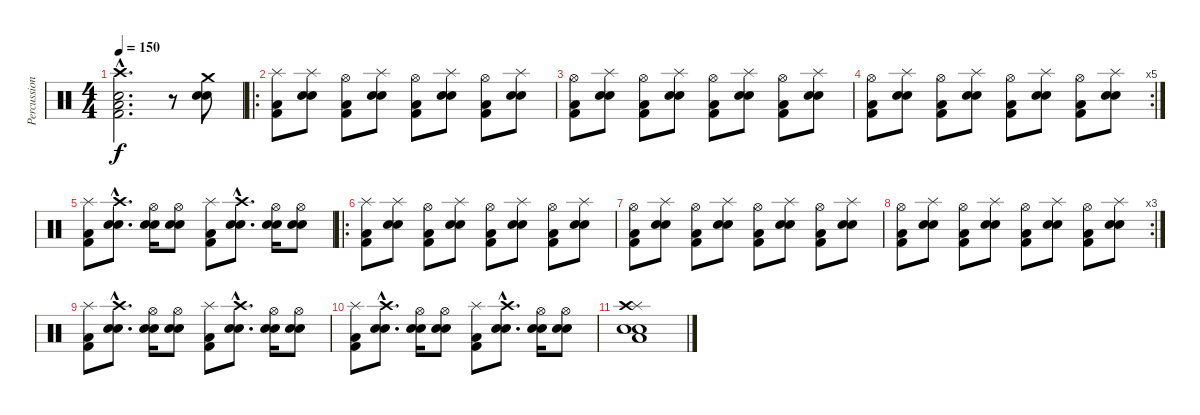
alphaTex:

\track ("Percussions" "Percussion") {instrument percussion}
\staff {score}
\articulation defaults
\ts (4 4)
\tempo 150
\clef neutral
\ks c
("Crash high (hit)"{hac} "Kick (hit) 2"{hac} "Low Floor Tom (hit)"{hac} "Snare (hit) 2"{hac}).2{d dy f} r.8 ("Crash medium (hit)" "Snare (hit) 2" "Electric Snare (hit)").8 |
\ro
("Splash (hit)" "Kick (hit) 2" "Low Floor Tom (hit)").8 ("Splash (hit)" "Snare (hit) 2" "Electric Snare (hit)").8 ("Hi-Hat (open)" "Kick (hit) 2" "Low Floor Tom (hit)").8 ("Splash (hit)" "Snare (hit) 2" "Electric Snare (hit)").8 ("Hi-Hat (open)" "Kick (hit) 2" "Low Floor Tom (hit)").8 ("Splash (hit)" "Snare (hit) 2" "Electric Snare (hit)").8 ("Hi-Hat (open)" "Kick (hit) 2" "Low Floor Tom (hit)").8 ("Splash (hit)" "Snare (hit) 2" "Electric Snare (hit)").8 |
("Hi-Hat (open)" "Kick (hit) 2" "Low Floor Tom (hit)").8 ("Splash (hit)" "Snare (hit) 2" "Electric Snare (hit)").8 ("Hi-Hat (open)" "Kick (hit) 2" "Low Floor Tom (hit)").8 ("Splash (hit)" "Snare (hit) 2" "Electric Snare (hit)").8 ("Hi-Hat (open)" "Kick (hit) 2" "Low Floor Tom (hit)").8 ("Splash (hit)" "Snare (hit) 2" "Electric Snare (hit)").8 ("Hi-Hat (open)" "Kick (hit) 2" "Low Floor Tom (hit)").8 ("Splash (hit)" "Snare (hit) 2" "Electric Snare (hit)").8 |
\rc 5
("Hi-Hat (open)" "Kick (hit) 2" "Low Floor Tom (hit)").8 ("Splash (hit)" "Snare (hit) 2" "Electric Snare (hit)").8 ("Hi-Hat (open)" "Kick (hit) 2" "Low Floor Tom (hit)").8 ("Splash (hit)" "Snare (hit) 2" "Electric Snare (hit)").8 ("Hi-Hat (open)" "Kick (hit) 2" "Low Floor Tom (hit)").8 ("Splash (hit)" "Snare (hit) 2" "Electric Snare (hit)").8 ("Hi-Hat (open)" "Kick (hit) 2" "Low Floor Tom (hit)").8 ("Splash (hit)" "Snare (hit) 2" "Electric Snare (hit)").8 |
("Splash (hit)" "Kick (hit) 2" "Low Floor Tom (hit)").8 ("Crash high (hit)"{hac} "Snare (hit) 2"{hac} "Electric Snare (hit)"{hac}).8{d} ("Hi-Hat (open)" "Snare (hit) 2" "Electric Snare (hit)").16 ("Hi-Hat (open)" "Snare (hit) 2" "Electric Snare (hit)").8 ("Splash (hit)" "Kick (hit) 2" "Low Floor Tom (hit)").8 ("Crash high (hit)"{hac} "Snare (hit) 2"{hac} "Electric Snare (hit)"{hac}).8{d} ("Hi-Hat (open)" "Snare (hit) 2" "Electric Snare (hit)").16 ("Hi-Hat (open)" "Snare (hit) 2" "Electric Snare (hit)").8 |
\ro
("Splash (hit)" "Kick (hit) 2" "Low Floor Tom (hit)").8 ("Splash (hit)" "Snare (hit) 2" "Electric Snare (hit)").8 ("Hi-Hat (open)" "Kick (hit) 2" "Low Floor Tom (hit)").8 ("Splash (hit)" "Snare (hit) 2" "Electric Snare (hit)").8 ("Hi-Hat (open)" "Kick (hit) 2" "Low Floor Tom (hit)").8 ("Splash (hit)" "Snare (hit) 2" "Electric Snare (hit)").8 ("Hi-Hat (open)" "Kick (hit) 2" "Low Floor Tom (hit)").8 ("Splash (hit)" "Snare (hit) 2" "Electric Snare (hit)").8 |
("Hi-Hat (open)" "Kick (hit) 2" "Low Floor Tom (hit)").8 ("Splash (hit)" "Snare (hit) 2" "Electric Snare (hit)").8 ("Hi-Hat (open)" "Kick (hit) 2" "Low Floor Tom (hit)").8 ("Splash (hit)" "Snare (hit) 2" "Electric Snare (hit)").8 ("Hi-Hat (open)" "Kick (hit) 2" "Low Floor Tom (hit)").8 ("Splash (hit)" "Snare (hit) 2" "Electric Snare (hit)").8 ("Hi-Hat (open)" "Kick (hit) 2" "Low Floor Tom (hit)").8 ("Splash (hit)" "Snare (hit) 2" "Electric Snare (hit)").8 |
\rc 3
("Hi-Hat (open)" "Kick (hit) 2" "Low Floor Tom (hit)").8 ("Splash (hit)" "Snare (hit) 2" "Electric Snare (hit)").8 ("Hi-Hat (open)" "Kick (hit) 2" "Low Floor Tom (hit)").8 ("Splash (hit)" "Snare (hit) 2" "Electric Snare (hit)").8 ("Hi-Hat (open)" "Kick (hit) 2" "Low Floor Tom (hit)").8 ("Splash (hit)" "Snare (hit) 2" "Electric Snare (hit)").8 ("Hi-Hat (open)" "Kick (hit) 2" "Low Floor Tom (hit)").8 ("Splash (hit)" "Snare (hit) 2" "Electric Snare (hit)").8 |
("Splash (hit)" "Kick (hit) 2" "Low Floor Tom (hit)").8 ("Crash high (hit)"{hac} "Snare (hit) 2"{hac} "Electric Snare (hit)"{hac}).8{d} ("Hi-Hat (open)" "Snare (hit) 2" "Electric Snare (hit)").16 ("Hi-Hat (open)" "Snare (hit) 2" "Electric Snare (hit)").8 ("Splash (hit)" "Kick (hit) 2" "Low Floor Tom (hit)").8 ("Crash high (hit)"{hac} "Snare (hit) 2"{hac} "Electric Snare (hit)"{hac}).8{d} ("Hi-Hat (open)" "Snare (hit) 2" "Electric Snare (hit)").16 ("Hi-Hat (open)" "Snare (hit) 2" "Electric Snare (hit)").8 |
("Splash (hit)" "Kick (hit) 2" "Low Floor Tom (hit)").8 ("Crash high (hit)"{hac} "Snare (hit) 2"{hac} "Electric Snare (hit)"{hac}).8{d} ("Hi-Hat (open)" "Snare (hit) 2" "Electric Snare (hit)").16 ("Hi-Hat (open)" "Snare (hit) 2" "Electric Snare (hit)").8 ("Splash (hit)" "Kick (hit) 2" "Low Floor Tom (hit)").8 ("Crash high (hit)"{hac} "Snare (hit) 2"{hac} "Electric Snare (hit)"{hac}).8{d} ("Hi-Hat (open)" "Snare (hit) 2" "Electric Snare (hit)").16 ("Hi-Hat (open)" "Snare (hit) 2" "Electric Snare (hit)").8 |
("Splash (hit)" "Crash high (hit)" "Snare (hit) 2" "Low Floor Tom (hit)" "Electric Snare (hit)").1
